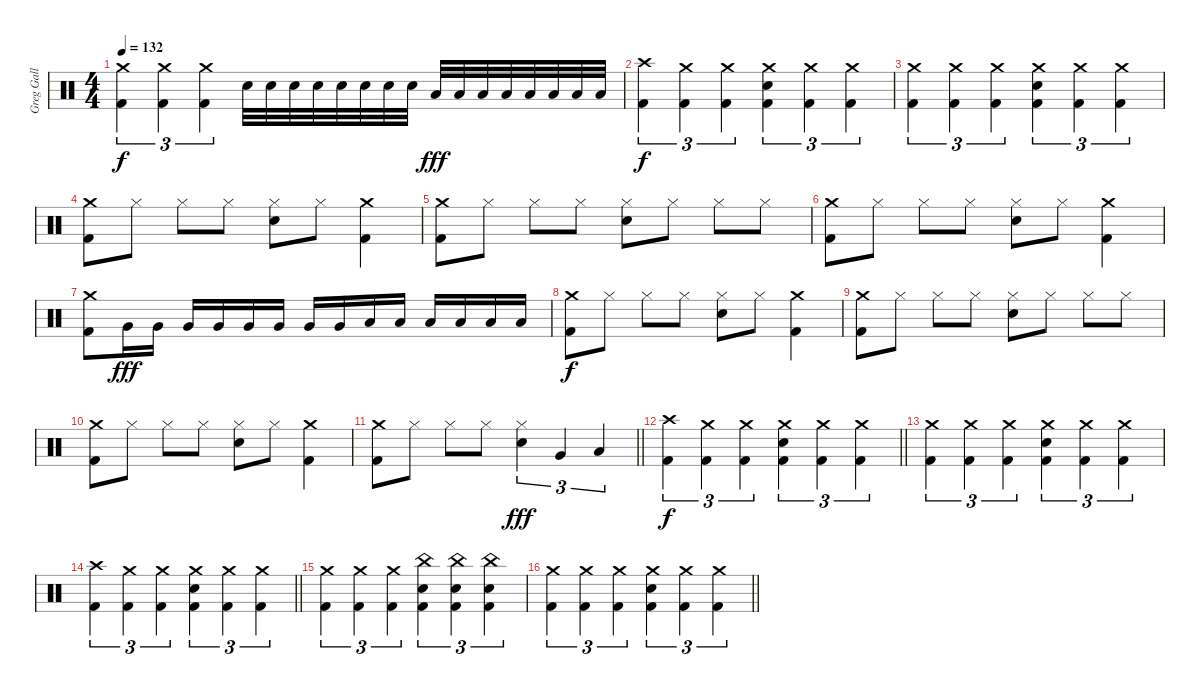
\track ("Greg Gall" "Greg Gall") {instrument percussion}
\staff {score}
\articulation defaults
\ts (4 4)
\tempo 132
\clef neutral
\ks c
("Crash medium (hit)" "Kick (hit) 2").4{tu (3 2) dy f} ("Crash medium (hit)" "Kick (hit) 2").4{tu (3 2)} ("Crash medium (hit)" "Kick (hit) 2").4{tu (3 2)} "Electric Snare (hit)".32 "Electric Snare (hit)".32 "Electric Snare (hit)".32 "Electric Snare (hit)".32 "Electric Snare (hit)".32 "Electric Snare (hit)".32 "Electric Snare (hit)".32 "Electric Snare (hit)".32 "Low Floor Tom (hit)".32{dy fff} "Low Floor Tom (hit)".32 "Low Floor Tom (hit)".32 "Low Floor Tom (hit)".32 "Low Floor Tom (hit)".32 "Low Floor Tom (hit)".32 "Low Floor Tom (hit)".32 "Low Floor Tom (hit)".32 |
("Crash high (hit)" "Kick (hit) 2").4{tu (3 2) dy f} ("Crash medium (hit)" "Kick (hit) 2").4{tu (3 2)} ("Crash medium (hit)" "Kick (hit) 2").4{tu (3 2)} ("Crash medium (hit)" "Electric Snare (hit)" "Kick (hit) 2").4{tu (3 2)} ("Crash medium (hit)" "Kick (hit) 2").4{tu (3 2)} ("Crash medium (hit)" "Kick (hit) 2").4{tu (3 2)} |
("Crash medium (hit)" "Kick (hit) 2").4{tu (3 2)} ("Crash medium (hit)" "Kick (hit) 2").4{tu (3 2)} ("Crash medium (hit)" "Kick (hit) 2").4{tu (3 2)} ("Crash medium (hit)" "Electric Snare (hit)" "Kick (hit) 2").4{tu (3 2)} ("Crash medium (hit)" "Kick (hit) 2").4{tu (3 2)} ("Crash medium (hit)" "Kick (hit) 2").4{tu (3 2)} |
("Crash medium (hit)" "Kick (hit) 2").8 "Hi-Hat (closed)".8 "Hi-Hat (closed)".8 "Hi-Hat (closed)".8 ("Hi-Hat (closed)" "Electric Snare (hit)").8 "Hi-Hat (closed)".8 ("Crash medium (hit)" "Kick (hit) 2").4 |
("Crash medium (hit)" "Kick (hit) 2").8 "Hi-Hat (closed)".8 "Hi-Hat (closed)".8 "Hi-Hat (closed)".8 ("Hi-Hat (closed)" "Electric Snare (hit)").8 "Hi-Hat (closed)".8 "Hi-Hat (closed)".8 "Hi-Hat (closed)".8 |
("Crash medium (hit)" "Kick (hit) 2").8 "Hi-Hat (closed)".8 "Hi-Hat (closed)".8 "Hi-Hat (closed)".8 ("Hi-Hat (closed)" "Electric Snare (hit)").8 "Hi-Hat (closed)".8 ("Crash medium (hit)" "Kick (hit) 2").4 |
("Crash medium (hit)" "Kick (hit) 2").8 "Very Low Tom (hit)".16{dy fff} "Very Low Tom (hit)".16 "Very Low Tom (hit)".16 "Very Low Tom (hit)".16 "Very Low Tom (hit)".16 "Very Low Tom (hit)".16 "Very Low Tom (hit)".16 "Very Low Tom (hit)".16 "Low Floor Tom (hit)".16 "Low Floor Tom (hit)".16 "Low Floor Tom (hit)".16 "Low Floor Tom (hit)".16 "Low Floor Tom (hit)".16 "Low Floor Tom (hit)".16 |
("Crash medium (hit)" "Kick (hit) 2").8{dy f} "Hi-Hat (closed)".8 "Hi-Hat (closed)".8 "Hi-Hat (closed)".8 ("Hi-Hat (closed)" "Electric Snare (hit)").8 "Hi-Hat (closed)".8 ("Crash medium (hit)" "Kick (hit) 2").4 |
("Crash medium (hit)" "Kick (hit) 2").8 "Hi-Hat (closed)".8 "Hi-Hat (closed)".8 "Hi-Hat (closed)".8 ("Hi-Hat (closed)" "Electric Snare (hit)").8 "Hi-Hat (closed)".8 "Hi-Hat (closed)".8 "Hi-Hat (closed)".8 |
("Crash medium (hit)" "Kick (hit) 2").8 "Hi-Hat (closed)".8 "Hi-Hat (closed)".8 "Hi-Hat (closed)".8 ("Hi-Hat (closed)" "Electric Snare (hit)").8 "Hi-Hat (closed)".8 ("Crash medium (hit)" "Kick (hit) 2").4 |
\barLineRight lightlight
("Crash medium (hit)" "Kick (hit) 2").8 "Hi-Hat (closed)".8 "Hi-Hat (closed)".8 "Hi-Hat (closed)".8 ("Hi-Hat (closed)" "Electric Snare (hit)").4{tu (3 2) dy fff} "Very Low Tom (hit)".4{tu (3 2)} "Low Floor Tom (hit)".4{tu (3 2)} |
\barLineRight lightlight
("Crash high (hit)" "Kick (hit) 2").4{tu (3 2) dy f} ("Crash medium (hit)" "Kick (hit) 2").4{tu (3 2)} ("Crash medium (hit)" "Kick (hit) 2").4{tu (3 2)} ("Crash medium (hit)" "Electric Snare (hit)" "Kick (hit) 2").4{tu (3 2)} ("Crash medium (hit)" "Kick (hit) 2").4{tu (3 2)} ("Crash medium (hit)" "Kick (hit) 2").4{tu (3 2)} |
("Crash medium (hit)" "Kick (hit) 2").4{tu (3 2)} ("Crash medium (hit)" "Kick (hit) 2").4{tu (3 2)} ("Crash medium (hit)" "Kick (hit) 2").4{tu (3 2)} ("Crash medium (hit)" "Electric Snare (hit)" "Kick (hit) 2").4{tu (3 2)} ("Crash medium (hit)" "Kick (hit) 2").4{tu (3 2)} ("Crash medium (hit)" "Kick (hit) 2").4{tu (3 2)} |
\barLineRight lightlight
("Crash high (hit)" "Kick (hit) 2").4{tu (3 2)} ("Crash medium (hit)" "Kick (hit) 2").4{tu (3 2)} ("Crash medium (hit)" "Kick (hit) 2").4{tu (3 2)} ("Crash medium (hit)" "Electric Snare (hit)" "Kick (hit) 2").4{tu (3 2)} ("Crash medium (hit)" "Kick (hit) 2").4{tu (3 2)} ("Crash medium (hit)" "Kick (hit) 2").4{tu (3 2)} |
("Crash medium (hit)" "Kick (hit) 2").4{tu (3 2)} ("Crash medium (hit)" "Kick (hit) 2").4{tu (3 2)} ("Crash medium (hit)" "Kick (hit) 2").4{tu (3 2)} ("China (hit)" "Electric Snare (hit)" "Kick (hit) 2").4{tu (3 2)} ("China (hit)" "Electric Snare (hit)" "Kick (hit) 2").4{tu (3 2)} ("China (hit)" "Electric Snare (hit)" "Kick (hit) 2").4{tu (3 2)} |
\barLineRight lightlight
("Crash medium (hit)" "Kick (hit) 2").4{tu (3 2)} ("Crash medium (hit)" "Kick (hit) 2").4{tu (3 2)} ("Crash medium (hit)" "Kick (hit) 2").4{tu (3 2)} ("Crash medium (hit)" "Electric Snare (hit)" "Kick (hit) 2").4{tu (3 2)} ("Crash medium (hit)" "Kick (hit) 2").4{tu (3 2)} ("Crash medium (hit)" "Kick (hit) 2").4{tu (3 2)}
